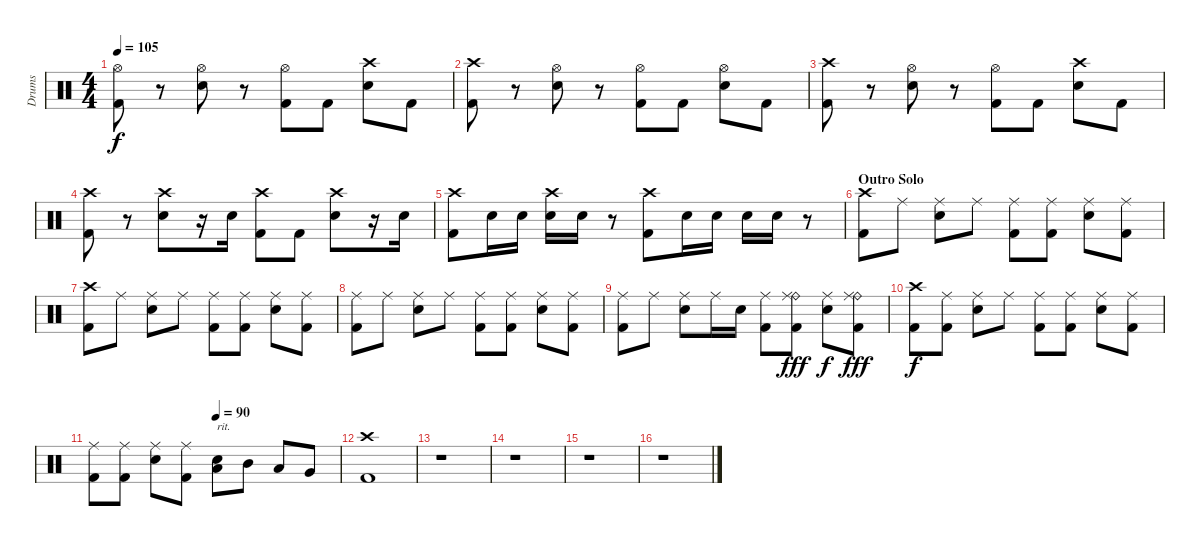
\track ("Drums" "Drums") {instrument percussion}
\staff {score}
\articulation defaults
\ts (4 4)
\tempo 105
\clef neutral
\ks c
("Hi-Hat (open)" "Kick (hit) 2").8{dy f} r.8 ("Hi-Hat (open)" "Electric Snare (hit)").8 r.8 ("Hi-Hat (open)" "Kick (hit) 2").8 "Kick (hit) 2".8 ("Crash high (hit)" "Electric Snare (hit)").8 "Kick (hit) 2".8 |
("Crash high (hit)" "Kick (hit) 2").8 r.8 ("Hi-Hat (open)" "Electric Snare (hit)").8 r.8 ("Hi-Hat (open)" "Kick (hit) 2").8 "Kick (hit) 2".8 ("Hi-Hat (open)" "Electric Snare (hit)").8 "Kick (hit) 2".8 |
("Crash high (hit)" "Kick (hit) 2").8 r.8 ("Hi-Hat (open)" "Electric Snare (hit)").8 r.8 ("Hi-Hat (open)" "Kick (hit) 2").8 "Kick (hit) 2".8 ("Crash high (hit)" "Electric Snare (hit)").8 "Kick (hit) 2".8 |
("Crash high (hit)" "Kick (hit) 2").8 r.8 ("Crash high (hit)" "Electric Snare (hit)").8 r.16 "Electric Snare (hit)".16 ("Crash high (hit)" "Kick (hit) 2").8 "Kick (hit) 2".8 ("Crash high (hit)" "Electric Snare (hit)").8 r.16 "Electric Snare (hit)".16 |
("Crash high (hit)" "Kick (hit) 2").8 "Electric Snare (hit)".16 "Electric Snare (hit)".16 ("Crash high (hit)" "Electric Snare (hit)").16 "Electric Snare (hit)".16 r.8 ("Crash high (hit)" "Kick (hit) 2").8 "Electric Snare (hit)".16 "Electric Snare (hit)".16 "Electric Snare (hit)".16 "Electric Snare (hit)".16 r.8 |
\section ("" "Outro Solo")
("Crash high (hit)" "Kick (hit) 2").8 "Ride (middle)".8 ("Ride (middle)" "Electric Snare (hit)").8 "Ride (middle)".8 ("Ride (middle)" "Kick (hit) 2").8 ("Ride (middle)" "Kick (hit) 2").8 ("Ride (middle)" "Electric Snare (hit)").8 ("Ride (middle)" "Kick (hit) 2").8 |
("Crash high (hit)" "Kick (hit) 2").8 "Ride (middle)".8 ("Ride (middle)" "Electric Snare (hit)").8 "Ride (middle)".8 ("Ride (middle)" "Kick (hit) 2").8 ("Ride (middle)" "Kick (hit) 2").8 ("Ride (middle)" "Electric Snare (hit)").8 ("Ride (middle)" "Kick (hit) 2").8 |
("Ride (middle)" "Kick (hit) 2").8 "Ride (middle)".8 ("Ride (middle)" "Electric Snare (hit)").8 "Ride (middle)".8 ("Ride (middle)" "Kick (hit) 2").8 ("Ride (middle)" "Kick (hit) 2").8 ("Ride (middle)" "Electric Snare (hit)").8 ("Ride (middle)" "Kick (hit) 2").8 |
("Ride (middle)" "Kick (hit) 2").8 "Ride (middle)".8 ("Ride (middle)" "Electric Snare (hit)").8 "Ride (middle)".16 "Electric Snare (hit)".16 ("Ride (middle)" "Kick (hit) 2").8 ("Ride (bell)" "Ride (middle)" "Kick (hit) 2").8{dy fff} ("Ride (middle)" "Electric Snare (hit)").8{dy f} ("Ride (bell)" "Ride (middle)" "Kick (hit) 2").8{dy fff} |
("Crash high (hit)" "Kick (hit) 2").8{dy f} ("Ride (middle)" "Kick (hit) 2").8 ("Ride (middle)" "Electric Snare (hit)").8 "Ride (middle)".8 ("Ride (middle)" "Kick (hit) 2").8 ("Ride (middle)" "Kick (hit) 2").8 ("Ride (middle)" "Electric Snare (hit)").8 ("Ride (middle)" "Kick (hit) 2").8 |
\tempo (90 0.5)
("Ride (middle)" "Kick (hit) 2").8 ("Ride (middle)" "Kick (hit) 2").8 ("Ride (middle)" "Electric Snare (hit)").8 ("Ride (middle)" "Kick (hit) 2").8 ("Low Tom (hit)" "Electric Snare (hit)").8{txt "rit."} "Mid Tom (hit)".8 "Low Tom (hit)".8 "Very Low Tom (hit)".8 |
("Crash high (hit)" "Kick (hit) 2").1 |
r.1 |
r.1 |
r.1 |
r.1
